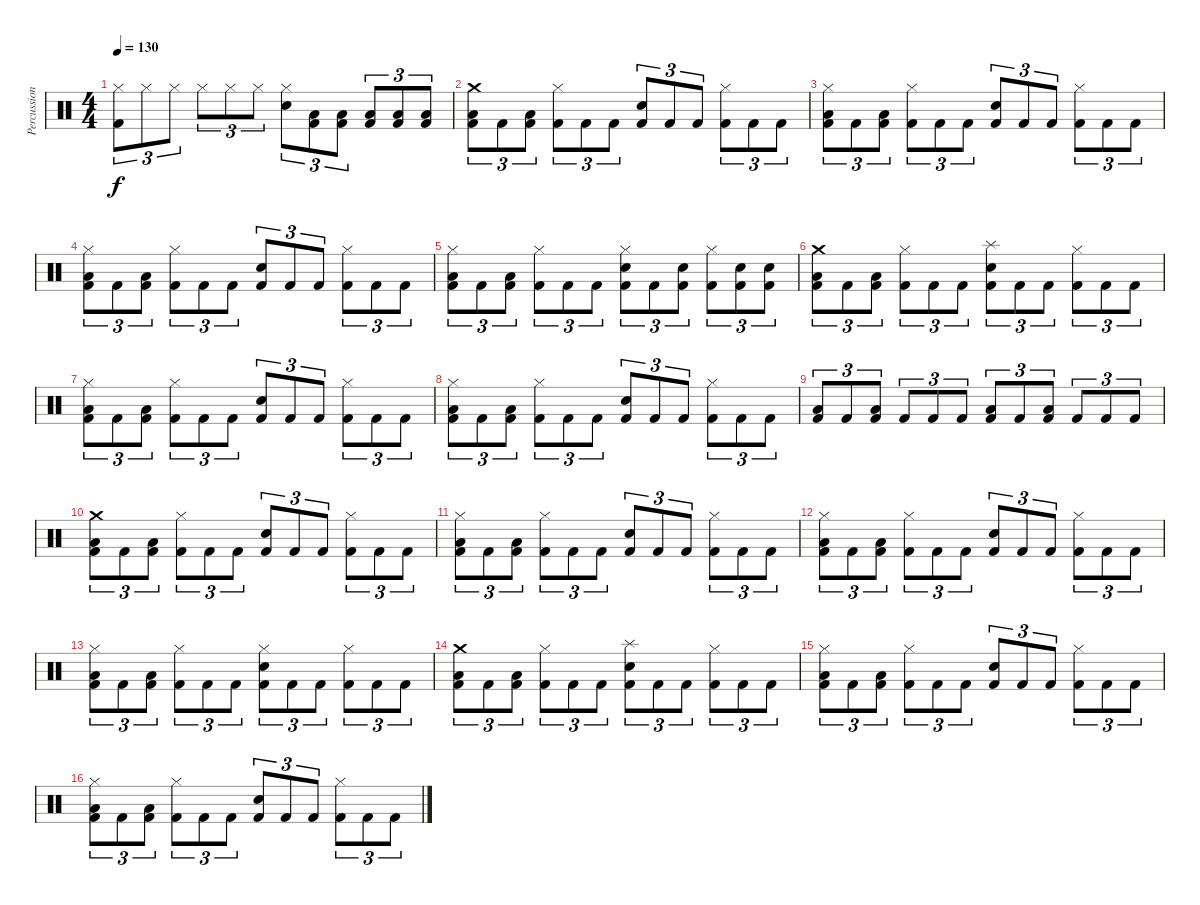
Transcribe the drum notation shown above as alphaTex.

\track ("Percussions" "Percussion") {instrument percussion}
\staff {score}
\articulation defaults
\ts (4 4)
\tempo 130
\clef neutral
\ks c
("Hi-Hat (closed)" "Kick (hit) 2").8{tu (3 2) dy f} "Hi-Hat (closed)".8{tu (3 2)} "Hi-Hat (closed)".8{tu (3 2)} "Hi-Hat (closed)".8{tu (3 2)} "Hi-Hat (closed)".8{tu (3 2)} "Hi-Hat (closed)".8{tu (3 2)} ("Hi-Hat (closed)" "Electric Snare (hit)").8{tu (3 2)} ("Low Tom (hit)" "Kick (hit) 2").8{tu (3 2)} ("Low Tom (hit)" "Kick (hit) 2").8{tu (3 2)} ("Low Tom (hit)" "Kick (hit) 2").8{tu (3 2)} ("Low Tom (hit)" "Kick (hit) 2").8{tu (3 2)} ("Low Tom (hit)" "Kick (hit) 2").8{tu (3 2)} |
("Crash medium (hit)" "Low Tom (hit)" "Kick (hit) 2").8{tu (3 2)} "Kick (hit) 2".8{tu (3 2)} ("Low Tom (hit)" "Kick (hit) 2").8{tu (3 2)} ("Hi-Hat (closed)" "Kick (hit) 2").8{tu (3 2)} "Kick (hit) 2".8{tu (3 2)} "Kick (hit) 2".8{tu (3 2)} ("Electric Snare (hit)" "Kick (hit) 2").8{tu (3 2)} "Kick (hit) 2".8{tu (3 2)} "Kick (hit) 2".8{tu (3 2)} ("Hi-Hat (closed)" "Kick (hit) 2").8{tu (3 2)} "Kick (hit) 2".8{tu (3 2)} "Kick (hit) 2".8{tu (3 2)} |
("Hi-Hat (closed)" "Low Tom (hit)" "Kick (hit) 2").8{tu (3 2)} "Kick (hit) 2".8{tu (3 2)} ("Low Tom (hit)" "Kick (hit) 2").8{tu (3 2)} ("Hi-Hat (closed)" "Kick (hit) 2").8{tu (3 2)} "Kick (hit) 2".8{tu (3 2)} "Kick (hit) 2".8{tu (3 2)} ("Electric Snare (hit)" "Kick (hit) 2").8{tu (3 2)} "Kick (hit) 2".8{tu (3 2)} "Kick (hit) 2".8{tu (3 2)} ("Hi-Hat (closed)" "Kick (hit) 2").8{tu (3 2)} "Kick (hit) 2".8{tu (3 2)} "Kick (hit) 2".8{tu (3 2)} |
("Hi-Hat (closed)" "Low Tom (hit)" "Kick (hit) 2").8{tu (3 2)} "Kick (hit) 2".8{tu (3 2)} ("Low Tom (hit)" "Kick (hit) 2").8{tu (3 2)} ("Hi-Hat (closed)" "Kick (hit) 2").8{tu (3 2)} "Kick (hit) 2".8{tu (3 2)} "Kick (hit) 2".8{tu (3 2)} ("Electric Snare (hit)" "Kick (hit) 2").8{tu (3 2)} "Kick (hit) 2".8{tu (3 2)} "Kick (hit) 2".8{tu (3 2)} ("Hi-Hat (closed)" "Kick (hit) 2").8{tu (3 2)} "Kick (hit) 2".8{tu (3 2)} "Kick (hit) 2".8{tu (3 2)} |
("Hi-Hat (closed)" "Low Tom (hit)" "Kick (hit) 2").8{tu (3 2)} "Kick (hit) 2".8{tu (3 2)} ("Low Tom (hit)" "Kick (hit) 2").8{tu (3 2)} ("Hi-Hat (closed)" "Kick (hit) 2").8{tu (3 2)} "Kick (hit) 2".8{tu (3 2)} "Kick (hit) 2".8{tu (3 2)} ("Hi-Hat (closed)" "Electric Snare (hit)" "Kick (hit) 2").8{tu (3 2)} "Kick (hit) 2".8{tu (3 2)} ("Electric Snare (hit)" "Kick (hit) 2").8{tu (3 2)} ("Hi-Hat (closed)" "Kick (hit) 2").8{tu (3 2)} ("Electric Snare (hit)" "Kick (hit) 2").8{tu (3 2)} ("Electric Snare (hit)" "Kick (hit) 2").8{tu (3 2)} |
("Crash medium (hit)" "Low Tom (hit)" "Kick (hit) 2").8{tu (3 2)} "Kick (hit) 2".8{tu (3 2)} ("Low Tom (hit)" "Kick (hit) 2").8{tu (3 2)} ("Hi-Hat (closed)" "Kick (hit) 2").8{tu (3 2)} "Kick (hit) 2".8{tu (3 2)} "Kick (hit) 2".8{tu (3 2)} ("Splash (hit)" "Electric Snare (hit)" "Kick (hit) 2").8{tu (3 2)} "Kick (hit) 2".8{tu (3 2)} "Kick (hit) 2".8{tu (3 2)} ("Hi-Hat (closed)" "Kick (hit) 2").8{tu (3 2)} "Kick (hit) 2".8{tu (3 2)} "Kick (hit) 2".8{tu (3 2)} |
("Hi-Hat (closed)" "Low Tom (hit)" "Kick (hit) 2").8{tu (3 2)} "Kick (hit) 2".8{tu (3 2)} ("Low Tom (hit)" "Kick (hit) 2").8{tu (3 2)} ("Hi-Hat (closed)" "Kick (hit) 2").8{tu (3 2)} "Kick (hit) 2".8{tu (3 2)} "Kick (hit) 2".8{tu (3 2)} ("Electric Snare (hit)" "Kick (hit) 2").8{tu (3 2)} "Kick (hit) 2".8{tu (3 2)} "Kick (hit) 2".8{tu (3 2)} ("Hi-Hat (closed)" "Kick (hit) 2").8{tu (3 2)} "Kick (hit) 2".8{tu (3 2)} "Kick (hit) 2".8{tu (3 2)} |
("Hi-Hat (closed)" "Low Tom (hit)" "Kick (hit) 2").8{tu (3 2)} "Kick (hit) 2".8{tu (3 2)} ("Low Tom (hit)" "Kick (hit) 2").8{tu (3 2)} ("Hi-Hat (closed)" "Kick (hit) 2").8{tu (3 2)} "Kick (hit) 2".8{tu (3 2)} "Kick (hit) 2".8{tu (3 2)} ("Electric Snare (hit)" "Kick (hit) 2").8{tu (3 2)} "Kick (hit) 2".8{tu (3 2)} "Kick (hit) 2".8{tu (3 2)} ("Hi-Hat (closed)" "Kick (hit) 2").8{tu (3 2)} "Kick (hit) 2".8{tu (3 2)} "Kick (hit) 2".8{tu (3 2)} |
("Low Tom (hit)" "Kick (hit) 2").8{tu (3 2)} "Kick (hit) 2".8{tu (3 2)} ("Low Tom (hit)" "Kick (hit) 2").8{tu (3 2)} "Kick (hit) 2".8{tu (3 2)} "Kick (hit) 2".8{tu (3 2)} "Kick (hit) 2".8{tu (3 2)} ("Low Tom (hit)" "Kick (hit) 2").8{tu (3 2)} "Kick (hit) 2".8{tu (3 2)} ("Low Tom (hit)" "Kick (hit) 2").8{tu (3 2)} "Kick (hit) 2".8{tu (3 2)} "Kick (hit) 2".8{tu (3 2)} "Kick (hit) 2".8{tu (3 2)} |
("Crash medium (hit)" "Low Tom (hit)" "Kick (hit) 2").8{tu (3 2)} "Kick (hit) 2".8{tu (3 2)} ("Low Tom (hit)" "Kick (hit) 2").8{tu (3 2)} ("Hi-Hat (closed)" "Kick (hit) 2").8{tu (3 2)} "Kick (hit) 2".8{tu (3 2)} "Kick (hit) 2".8{tu (3 2)} ("Electric Snare (hit)" "Kick (hit) 2").8{tu (3 2)} "Kick (hit) 2".8{tu (3 2)} "Kick (hit) 2".8{tu (3 2)} ("Hi-Hat (closed)" "Kick (hit) 2").8{tu (3 2)} "Kick (hit) 2".8{tu (3 2)} "Kick (hit) 2".8{tu (3 2)} |
("Hi-Hat (closed)" "Low Tom (hit)" "Kick (hit) 2").8{tu (3 2)} "Kick (hit) 2".8{tu (3 2)} ("Low Tom (hit)" "Kick (hit) 2").8{tu (3 2)} ("Hi-Hat (closed)" "Kick (hit) 2").8{tu (3 2)} "Kick (hit) 2".8{tu (3 2)} "Kick (hit) 2".8{tu (3 2)} ("Electric Snare (hit)" "Kick (hit) 2").8{tu (3 2)} "Kick (hit) 2".8{tu (3 2)} "Kick (hit) 2".8{tu (3 2)} ("Hi-Hat (closed)" "Kick (hit) 2").8{tu (3 2)} "Kick (hit) 2".8{tu (3 2)} "Kick (hit) 2".8{tu (3 2)} |
("Hi-Hat (closed)" "Low Tom (hit)" "Kick (hit) 2").8{tu (3 2)} "Kick (hit) 2".8{tu (3 2)} ("Low Tom (hit)" "Kick (hit) 2").8{tu (3 2)} ("Hi-Hat (closed)" "Kick (hit) 2").8{tu (3 2)} "Kick (hit) 2".8{tu (3 2)} "Kick (hit) 2".8{tu (3 2)} ("Electric Snare (hit)" "Kick (hit) 2").8{tu (3 2)} "Kick (hit) 2".8{tu (3 2)} "Kick (hit) 2".8{tu (3 2)} ("Hi-Hat (closed)" "Kick (hit) 2").8{tu (3 2)} "Kick (hit) 2".8{tu (3 2)} "Kick (hit) 2".8{tu (3 2)} |
("Hi-Hat (closed)" "Low Tom (hit)" "Kick (hit) 2").8{tu (3 2)} "Kick (hit) 2".8{tu (3 2)} ("Low Tom (hit)" "Kick (hit) 2").8{tu (3 2)} ("Hi-Hat (closed)" "Kick (hit) 2").8{tu (3 2)} "Kick (hit) 2".8{tu (3 2)} "Kick (hit) 2".8{tu (3 2)} ("Hi-Hat (closed)" "Electric Snare (hit)" "Kick (hit) 2").8{tu (3 2)} "Kick (hit) 2".8{tu (3 2)} "Kick (hit) 2".8{tu (3 2)} ("Hi-Hat (closed)" "Kick (hit) 2").8{tu (3 2)} "Kick (hit) 2".8{tu (3 2)} "Kick (hit) 2".8{tu (3 2)} |
("Crash medium (hit)" "Low Tom (hit)" "Kick (hit) 2").8{tu (3 2)} "Kick (hit) 2".8{tu (3 2)} ("Low Tom (hit)" "Kick (hit) 2").8{tu (3 2)} ("Hi-Hat (closed)" "Kick (hit) 2").8{tu (3 2)} "Kick (hit) 2".8{tu (3 2)} "Kick (hit) 2".8{tu (3 2)} ("Splash (hit)" "Electric Snare (hit)" "Kick (hit) 2").8{tu (3 2)} "Kick (hit) 2".8{tu (3 2)} "Kick (hit) 2".8{tu (3 2)} ("Hi-Hat (closed)" "Kick (hit) 2").8{tu (3 2)} "Kick (hit) 2".8{tu (3 2)} "Kick (hit) 2".8{tu (3 2)} |
("Hi-Hat (closed)" "Low Tom (hit)" "Kick (hit) 2").8{tu (3 2)} "Kick (hit) 2".8{tu (3 2)} ("Low Tom (hit)" "Kick (hit) 2").8{tu (3 2)} ("Hi-Hat (closed)" "Kick (hit) 2").8{tu (3 2)} "Kick (hit) 2".8{tu (3 2)} "Kick (hit) 2".8{tu (3 2)} ("Electric Snare (hit)" "Kick (hit) 2").8{tu (3 2)} "Kick (hit) 2".8{tu (3 2)} "Kick (hit) 2".8{tu (3 2)} ("Hi-Hat (closed)" "Kick (hit) 2").8{tu (3 2)} "Kick (hit) 2".8{tu (3 2)} "Kick (hit) 2".8{tu (3 2)} |
("Hi-Hat (closed)" "Low Tom (hit)" "Kick (hit) 2").8{tu (3 2)} "Kick (hit) 2".8{tu (3 2)} ("Low Tom (hit)" "Kick (hit) 2").8{tu (3 2)} ("Hi-Hat (closed)" "Kick (hit) 2").8{tu (3 2)} "Kick (hit) 2".8{tu (3 2)} "Kick (hit) 2".8{tu (3 2)} ("Electric Snare (hit)" "Kick (hit) 2").8{tu (3 2)} "Kick (hit) 2".8{tu (3 2)} "Kick (hit) 2".8{tu (3 2)} ("Hi-Hat (closed)" "Kick (hit) 2").8{tu (3 2)} "Kick (hit) 2".8{tu (3 2)} "Kick (hit) 2".8{tu (3 2)}
